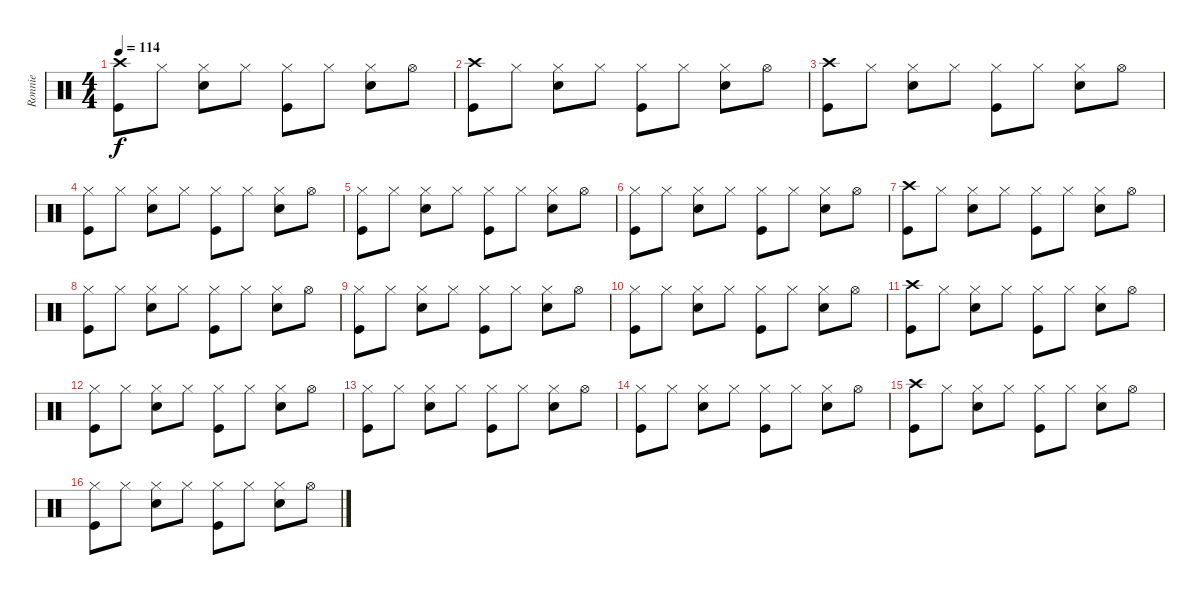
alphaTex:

\track ("Ronnie" "Ronnie") {instrument percussion}
\staff {score}
\articulation defaults
\ts (4 4)
\tempo 114
\clef neutral
\ks c
("Crash high (hit)" "Kick (hit)").8{dy f} "Hi-Hat (closed)".8 ("Hi-Hat (closed)" "Electric Snare (hit)").8 "Hi-Hat (closed)".8 ("Hi-Hat (closed)" "Kick (hit)").8 "Hi-Hat (closed)".8 ("Hi-Hat (closed)" "Electric Snare (hit)").8 "Hi-Hat (open)".8 |
("Crash high (hit)" "Kick (hit)").8 "Hi-Hat (closed)".8 ("Hi-Hat (closed)" "Electric Snare (hit)").8 "Hi-Hat (closed)".8 ("Hi-Hat (closed)" "Kick (hit)").8 "Hi-Hat (closed)".8 ("Hi-Hat (closed)" "Electric Snare (hit)").8 "Hi-Hat (open)".8 |
("Crash high (hit)" "Kick (hit)").8 "Hi-Hat (closed)".8 ("Hi-Hat (closed)" "Electric Snare (hit)").8 "Hi-Hat (closed)".8 ("Hi-Hat (closed)" "Kick (hit)").8 "Hi-Hat (closed)".8 ("Hi-Hat (closed)" "Electric Snare (hit)").8 "Hi-Hat (open)".8 |
("Hi-Hat (closed)" "Kick (hit)").8 "Hi-Hat (closed)".8 ("Hi-Hat (closed)" "Electric Snare (hit)").8 "Hi-Hat (closed)".8 ("Hi-Hat (closed)" "Kick (hit)").8 "Hi-Hat (closed)".8 ("Hi-Hat (closed)" "Electric Snare (hit)").8 "Hi-Hat (open)".8 |
("Hi-Hat (closed)" "Kick (hit)").8 "Hi-Hat (closed)".8 ("Hi-Hat (closed)" "Electric Snare (hit)").8 "Hi-Hat (closed)".8 ("Hi-Hat (closed)" "Kick (hit)").8 "Hi-Hat (closed)".8 ("Hi-Hat (closed)" "Electric Snare (hit)").8 "Hi-Hat (open)".8 |
("Hi-Hat (closed)" "Kick (hit)").8 "Hi-Hat (closed)".8 ("Hi-Hat (closed)" "Electric Snare (hit)").8 "Hi-Hat (closed)".8 ("Hi-Hat (closed)" "Kick (hit)").8 "Hi-Hat (closed)".8 ("Hi-Hat (closed)" "Electric Snare (hit)").8 "Hi-Hat (open)".8 |
("Crash high (hit)" "Kick (hit)").8 "Hi-Hat (closed)".8 ("Hi-Hat (closed)" "Electric Snare (hit)").8 "Hi-Hat (closed)".8 ("Hi-Hat (closed)" "Kick (hit)").8 "Hi-Hat (closed)".8 ("Hi-Hat (closed)" "Electric Snare (hit)").8 "Hi-Hat (open)".8 |
("Hi-Hat (closed)" "Kick (hit)").8 "Hi-Hat (closed)".8 ("Hi-Hat (closed)" "Electric Snare (hit)").8 "Hi-Hat (closed)".8 ("Hi-Hat (closed)" "Kick (hit)").8 "Hi-Hat (closed)".8 ("Hi-Hat (closed)" "Electric Snare (hit)").8 "Hi-Hat (open)".8 |
("Hi-Hat (closed)" "Kick (hit)").8 "Hi-Hat (closed)".8 ("Hi-Hat (closed)" "Electric Snare (hit)").8 "Hi-Hat (closed)".8 ("Hi-Hat (closed)" "Kick (hit)").8 "Hi-Hat (closed)".8 ("Hi-Hat (closed)" "Electric Snare (hit)").8 "Hi-Hat (open)".8 |
("Hi-Hat (closed)" "Kick (hit)").8 "Hi-Hat (closed)".8 ("Hi-Hat (closed)" "Electric Snare (hit)").8 "Hi-Hat (closed)".8 ("Hi-Hat (closed)" "Kick (hit)").8 "Hi-Hat (closed)".8 ("Hi-Hat (closed)" "Electric Snare (hit)").8 "Hi-Hat (open)".8 |
("Crash high (hit)" "Kick (hit)").8 "Hi-Hat (closed)".8 ("Hi-Hat (closed)" "Electric Snare (hit)").8 "Hi-Hat (closed)".8 ("Hi-Hat (closed)" "Kick (hit)").8 "Hi-Hat (closed)".8 ("Hi-Hat (closed)" "Electric Snare (hit)").8 "Hi-Hat (open)".8 |
("Hi-Hat (closed)" "Kick (hit)").8 "Hi-Hat (closed)".8 ("Hi-Hat (closed)" "Electric Snare (hit)").8 "Hi-Hat (closed)".8 ("Hi-Hat (closed)" "Kick (hit)").8 "Hi-Hat (closed)".8 ("Hi-Hat (closed)" "Electric Snare (hit)").8 "Hi-Hat (open)".8 |
("Hi-Hat (closed)" "Kick (hit)").8 "Hi-Hat (closed)".8 ("Hi-Hat (closed)" "Electric Snare (hit)").8 "Hi-Hat (closed)".8 ("Hi-Hat (closed)" "Kick (hit)").8 "Hi-Hat (closed)".8 ("Hi-Hat (closed)" "Electric Snare (hit)").8 "Hi-Hat (open)".8 |
("Hi-Hat (closed)" "Kick (hit)").8 "Hi-Hat (closed)".8 ("Hi-Hat (closed)" "Electric Snare (hit)").8 "Hi-Hat (closed)".8 ("Hi-Hat (closed)" "Kick (hit)").8 "Hi-Hat (closed)".8 ("Hi-Hat (closed)" "Electric Snare (hit)").8 "Hi-Hat (open)".8 |
("Crash high (hit)" "Kick (hit)").8 "Hi-Hat (closed)".8 ("Hi-Hat (closed)" "Electric Snare (hit)").8 "Hi-Hat (closed)".8 ("Hi-Hat (closed)" "Kick (hit)").8 "Hi-Hat (closed)".8 ("Hi-Hat (closed)" "Electric Snare (hit)").8 "Hi-Hat (open)".8 |
("Hi-Hat (closed)" "Kick (hit)").8 "Hi-Hat (closed)".8 ("Hi-Hat (closed)" "Electric Snare (hit)").8 "Hi-Hat (closed)".8 ("Hi-Hat (closed)" "Kick (hit)").8 "Hi-Hat (closed)".8 ("Hi-Hat (closed)" "Electric Snare (hit)").8 "Hi-Hat (open)".8
